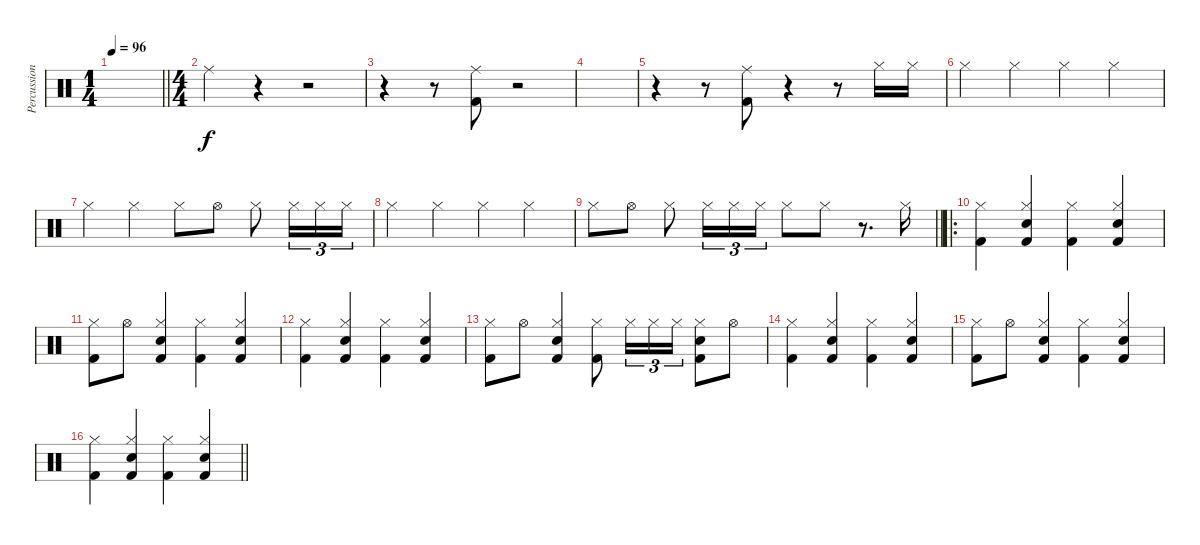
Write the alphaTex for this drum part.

\track ("Percussions" "Percussion") {instrument percussion}
\staff {score}
\articulation defaults
\ts (1 4)
\tempo 96
\clef neutral
\barLineRight lightlight
\ks c
|
\ts (4 4)
"Ride (middle)".4 r.4 r.2 |
r.4 r.8 ("Ride (middle)" "Kick (hit) 2").8 r.2 |
|
r.4 r.8 ("Ride (middle)" "Kick (hit) 2").8 r.4 r.8 "Hi-Hat (closed)".16 "Hi-Hat (closed)".16 |
"Hi-Hat (closed)".4 "Hi-Hat (closed)".4 "Hi-Hat (closed)".4 "Hi-Hat (closed)".4 |
"Hi-Hat (closed)".4 "Hi-Hat (closed)".4 "Hi-Hat (closed)".8 "Hi-Hat (open)".8 "Hi-Hat (closed)".8 "Hi-Hat (closed)".16{tu (3 2)} "Hi-Hat (closed)".16{tu (3 2)} "Hi-Hat (closed)".16{tu (3 2)} |
"Hi-Hat (closed)".4 "Hi-Hat (closed)".4 "Hi-Hat (closed)".4 "Hi-Hat (closed)".4 |
\barLineRight lightlight "Hi-Hat (closed)".8 "Hi-Hat (open)".8 "Hi-Hat (closed)".8 "Hi-Hat (closed)".16{tu (3 2)} "Hi-Hat (closed)".16{tu (3 2)} "Hi-Hat (closed)".16{tu (3 2)} "Hi-Hat (closed)".8 "Hi-Hat (closed)".8
r.8{d} "Hi-Hat (closed)".16 |
\ro
("Hi-Hat (closed)" "Kick (hit) 2").4 ("Hi-Hat (closed)" "Snare (hit) 2" "Kick (hit) 2").4 ("Hi-Hat (closed)" "Kick (hit) 2").4 ("Hi-Hat (closed)" "Snare (hit) 2" "Kick (hit) 2").4 |
("Hi-Hat (closed)" "Kick (hit) 2").8 "Hi-Hat (open)".8 ("Hi-Hat (closed)" "Snare (hit) 2" "Kick (hit) 2").4 ("Hi-Hat (closed)" "Kick (hit) 2").4 ("Hi-Hat (closed)" "Snare (hit) 2" "Kick (hit) 2").4 |
("Hi-Hat (closed)" "Kick (hit) 2").4 ("Hi-Hat (closed)" "Snare (hit) 2" "Kick (hit) 2").4 ("Hi-Hat (closed)" "Kick (hit) 2").4 ("Hi-Hat (closed)" "Snare (hit) 2" "Kick (hit) 2").4 |
("Hi-Hat (closed)" "Kick (hit) 2").8 "Hi-Hat (open)".8 ("Hi-Hat (closed)" "Snare (hit) 2" "Kick (hit) 2").4 ("Hi-Hat (closed)" "Kick (hit) 2").8 "Hi-Hat (closed)".16{tu (3 2)} "Hi-Hat (closed)".16{tu (3 2)} "Hi-Hat (closed)".16{tu (3 2)} ("Hi-Hat (closed)" "Snare (hit) 2" "Kick (hit) 2").8 "Hi-Hat (open)".8 |
("Hi-Hat (closed)" "Kick (hit) 2").4 ("Hi-Hat (closed)" "Snare (hit) 2" "Kick (hit) 2").4 ("Hi-Hat (closed)" "Kick (hit) 2").4 ("Hi-Hat (closed)" "Snare (hit) 2" "Kick (hit) 2").4 |
("Hi-Hat (closed)" "Kick (hit) 2").8 "Hi-Hat (open)".8 ("Hi-Hat (closed)" "Snare (hit) 2" "Kick (hit) 2").4 ("Hi-Hat (closed)" "Kick (hit) 2").4 ("Hi-Hat (closed)" "Snare (hit) 2" "Kick (hit) 2").4 |
\barLineRight lightlight
("Hi-Hat (closed)" "Kick (hit) 2").4 ("Hi-Hat (closed)" "Snare (hit) 2" "Kick (hit) 2").4 ("Hi-Hat (closed)" "Kick (hit) 2").4 ("Hi-Hat (closed)" "Snare (hit) 2" "Kick (hit) 2").4
